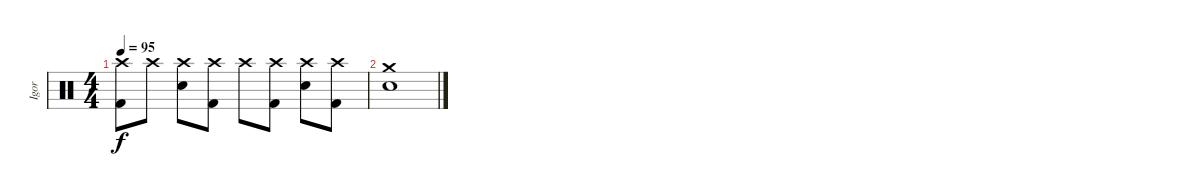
\track ("Igor" "Igor") {instrument percussion}
\staff {score}
\articulation defaults
\ts (4 4)
\tempo 95
\clef neutral
\ks c
("Crash high (hit)" "Kick (hit) 2").8{dy f} "Crash high (hit)".8 ("Crash high (hit)" "Electric Snare (hit)").8 ("Crash high (hit)" "Kick (hit) 2").8 "Crash high (hit)".8 ("Crash high (hit)" "Kick (hit) 2").8 ("Crash high (hit)" "Electric Snare (hit)").8 ("Crash high (hit)" "Kick (hit) 2").8 |
("Electric Snare (hit)" "Crash medium (hit)").1
